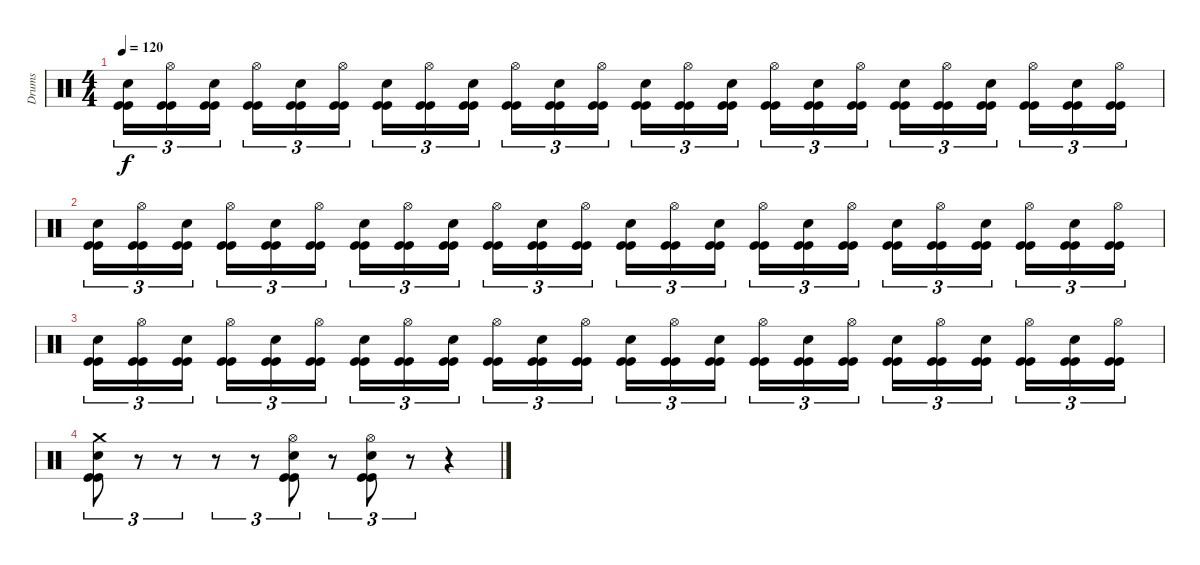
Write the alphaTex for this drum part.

\track ("Drums" "Drums") {instrument percussion}
\staff {score}
\articulation defaults
\ts (4 4)
\tempo 120
\clef neutral
\ks c
("Snare (hit) 2" "Kick (hit)" "Kick (hit)").16{tu (3 2) dy f} ("Hi-Hat (open)" "Kick (hit)" "Kick (hit)").16{tu (3 2)} ("Snare (hit) 2" "Kick (hit)" "Kick (hit)").16{tu (3 2)} ("Hi-Hat (open)" "Kick (hit)" "Kick (hit)").16{tu (3 2)} ("Snare (hit) 2" "Kick (hit)" "Kick (hit)").16{tu (3 2)} ("Hi-Hat (open)" "Kick (hit)" "Kick (hit)").16{tu (3 2)} ("Snare (hit) 2" "Kick (hit)" "Kick (hit)").16{tu (3 2)} ("Hi-Hat (open)" "Kick (hit)" "Kick (hit)").16{tu (3 2)} ("Snare (hit) 2" "Kick (hit)" "Kick (hit)").16{tu (3 2)} ("Hi-Hat (open)" "Kick (hit)" "Kick (hit)").16{tu (3 2)} ("Snare (hit) 2" "Kick (hit)" "Kick (hit)").16{tu (3 2)} ("Hi-Hat (open)" "Kick (hit)" "Kick (hit)").16{tu (3 2)} ("Snare (hit) 2" "Kick (hit)" "Kick (hit)").16{tu (3 2)} ("Hi-Hat (open)" "Kick (hit)" "Kick (hit)").16{tu (3 2)} ("Snare (hit) 2" "Kick (hit)" "Kick (hit)").16{tu (3 2)} ("Hi-Hat (open)" "Kick (hit)" "Kick (hit)").16{tu (3 2)} ("Snare (hit) 2" "Kick (hit)" "Kick (hit)").16{tu (3 2)} ("Hi-Hat (open)" "Kick (hit)" "Kick (hit)").16{tu (3 2)} ("Snare (hit) 2" "Kick (hit)" "Kick (hit)").16{tu (3 2)} ("Hi-Hat (open)" "Kick (hit)" "Kick (hit)").16{tu (3 2)} ("Snare (hit) 2" "Kick (hit)" "Kick (hit)").16{tu (3 2)} ("Hi-Hat (open)" "Kick (hit)" "Kick (hit)").16{tu (3 2)} ("Snare (hit) 2" "Kick (hit)" "Kick (hit)").16{tu (3 2)} ("Hi-Hat (open)" "Kick (hit)" "Kick (hit)").16{tu (3 2)} |
("Snare (hit) 2" "Kick (hit)" "Kick (hit)").16{tu (3 2)} ("Hi-Hat (open)" "Kick (hit)" "Kick (hit)").16{tu (3 2)} ("Snare (hit) 2" "Kick (hit)" "Kick (hit)").16{tu (3 2)} ("Hi-Hat (open)" "Kick (hit)" "Kick (hit)").16{tu (3 2)} ("Snare (hit) 2" "Kick (hit)" "Kick (hit)").16{tu (3 2)} ("Hi-Hat (open)" "Kick (hit)" "Kick (hit)").16{tu (3 2)} ("Snare (hit) 2" "Kick (hit)" "Kick (hit)").16{tu (3 2)} ("Hi-Hat (open)" "Kick (hit)" "Kick (hit)").16{tu (3 2)} ("Snare (hit) 2" "Kick (hit)" "Kick (hit)").16{tu (3 2)} ("Hi-Hat (open)" "Kick (hit)" "Kick (hit)").16{tu (3 2)} ("Snare (hit) 2" "Kick (hit)" "Kick (hit)").16{tu (3 2)} ("Hi-Hat (open)" "Kick (hit)" "Kick (hit)").16{tu (3 2)} ("Snare (hit) 2" "Kick (hit)" "Kick (hit)").16{tu (3 2)} ("Hi-Hat (open)" "Kick (hit)" "Kick (hit)").16{tu (3 2)} ("Snare (hit) 2" "Kick (hit)" "Kick (hit)").16{tu (3 2)} ("Hi-Hat (open)" "Kick (hit)" "Kick (hit)").16{tu (3 2)} ("Snare (hit) 2" "Kick (hit)" "Kick (hit)").16{tu (3 2)} ("Hi-Hat (open)" "Kick (hit)" "Kick (hit)").16{tu (3 2)} ("Snare (hit) 2" "Kick (hit)" "Kick (hit)").16{tu (3 2)} ("Hi-Hat (open)" "Kick (hit)" "Kick (hit)").16{tu (3 2)} ("Snare (hit) 2" "Kick (hit)" "Kick (hit)").16{tu (3 2)} ("Hi-Hat (open)" "Kick (hit)" "Kick (hit)").16{tu (3 2)} ("Snare (hit) 2" "Kick (hit)" "Kick (hit)").16{tu (3 2)} ("Hi-Hat (open)" "Kick (hit)" "Kick (hit)").16{tu (3 2)} |
("Snare (hit) 2" "Kick (hit)" "Kick (hit)").16{tu (3 2)} ("Hi-Hat (open)" "Kick (hit)" "Kick (hit)").16{tu (3 2)} ("Snare (hit) 2" "Kick (hit)" "Kick (hit)").16{tu (3 2)} ("Hi-Hat (open)" "Kick (hit)" "Kick (hit)").16{tu (3 2)} ("Snare (hit) 2" "Kick (hit)" "Kick (hit)").16{tu (3 2)} ("Hi-Hat (open)" "Kick (hit)" "Kick (hit)").16{tu (3 2)} ("Snare (hit) 2" "Kick (hit)" "Kick (hit)").16{tu (3 2)} ("Hi-Hat (open)" "Kick (hit)" "Kick (hit)").16{tu (3 2)} ("Snare (hit) 2" "Kick (hit)" "Kick (hit)").16{tu (3 2)} ("Hi-Hat (open)" "Kick (hit)" "Kick (hit)").16{tu (3 2)} ("Snare (hit) 2" "Kick (hit)" "Kick (hit)").16{tu (3 2)} ("Hi-Hat (open)" "Kick (hit)" "Kick (hit)").16{tu (3 2)} ("Snare (hit) 2" "Kick (hit)" "Kick (hit)").16{tu (3 2)} ("Hi-Hat (open)" "Kick (hit)" "Kick (hit)").16{tu (3 2)} ("Snare (hit) 2" "Kick (hit)" "Kick (hit)").16{tu (3 2)} ("Hi-Hat (open)" "Kick (hit)" "Kick (hit)").16{tu (3 2)} ("Snare (hit) 2" "Kick (hit)" "Kick (hit)").16{tu (3 2)} ("Hi-Hat (open)" "Kick (hit)" "Kick (hit)").16{tu (3 2)} ("Snare (hit) 2" "Kick (hit)" "Kick (hit)").16{tu (3 2)} ("Hi-Hat (open)" "Kick (hit)" "Kick (hit)").16{tu (3 2)} ("Snare (hit) 2" "Kick (hit)" "Kick (hit)").16{tu (3 2)} ("Hi-Hat (open)" "Kick (hit)" "Kick (hit)").16{tu (3 2)} ("Snare (hit) 2" "Kick (hit)" "Kick (hit)").16{tu (3 2)} ("Hi-Hat (open)" "Kick (hit)" "Kick (hit)").16{tu (3 2)} |
("Crash medium (hit)" "Snare (hit) 2" "Kick (hit)" "Kick (hit)").8{tu (3 2)} r.8{tu (3 2)} r.8{tu (3 2)} r.8{tu (3 2)} r.8{tu (3 2)} ("Snare (hit) 2" "Hi-Hat (open)" "Kick (hit)" "Kick (hit)").8{tu (3 2)} r.8{tu (3 2)} ("Snare (hit) 2" "Hi-Hat (open)" "Kick (hit)" "Kick (hit)").8{tu (3 2)} r.8{tu (3 2)} r.4
